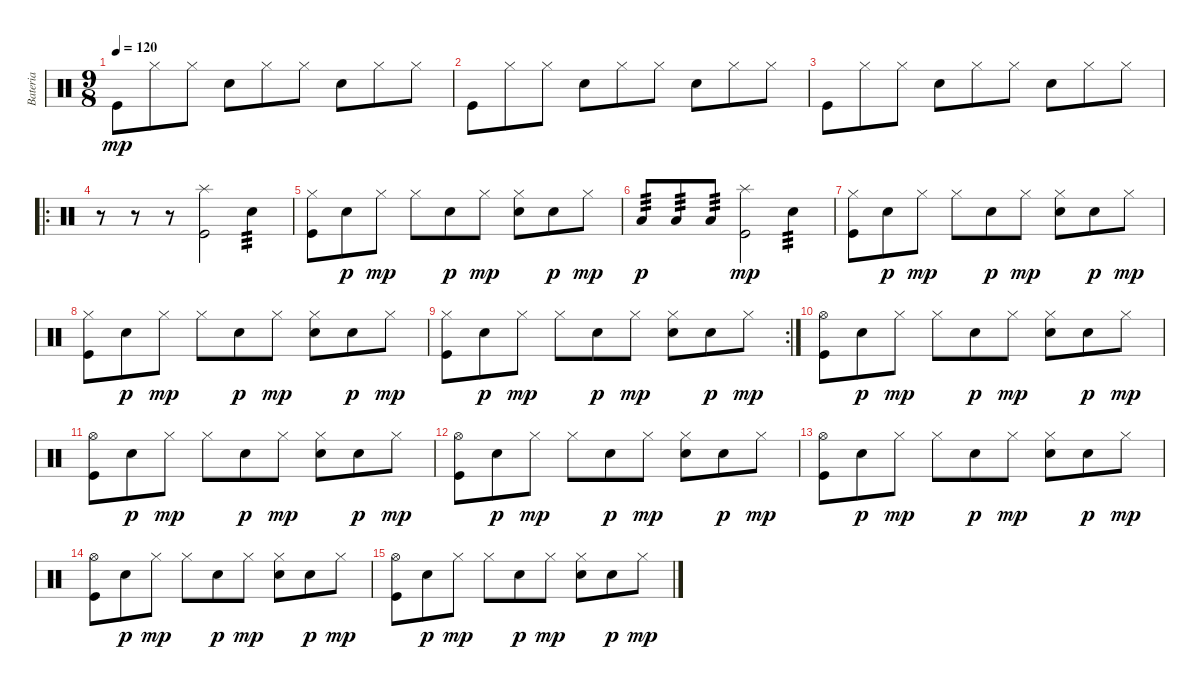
\track ("Bateria" "Bateria") {instrument percussion}
\staff {score}
\articulation defaults
\ts (9 8)
\tempo 120
\clef neutral
\ks c "Kick (hit)".8{dy mp} "Hi-Hat (closed)".8 "Hi-Hat (closed)".8 "Snare (hit) 2".8 "Hi-Hat (closed)".8 "Hi-Hat (closed)".8 "Snare (hit) 2".8 "Hi-Hat (closed)".8 "Hi-Hat (closed)".8
|
"Kick (hit)".8 "Hi-Hat (closed)".8 "Hi-Hat (closed)".8 "Snare (hit) 2".8 "Hi-Hat (closed)".8 "Hi-Hat (closed)".8 "Snare (hit) 2".8 "Hi-Hat (closed)".8 "Hi-Hat (closed)".8 |
"Kick (hit)".8 "Hi-Hat (closed)".8 "Hi-Hat (closed)".8 "Snare (hit) 2".8 "Hi-Hat (closed)".8 "Hi-Hat (closed)".8 "Snare (hit) 2".8 "Hi-Hat (closed)".8 "Hi-Hat (closed)".8 |
\ro
r.8 r.8 r.8 ("Splash (hit)" "Kick (hit)").2 "Snare (hit) 2".4{tp 3} |
("Hi-Hat (closed)" "Kick (hit)").8 "Snare (hit) 2".8{dy p} "Hi-Hat (closed)".8{dy mp} "Hi-Hat (closed)".8 "Snare (hit) 2".8{dy p} "Hi-Hat (closed)".8{dy mp} ("Hi-Hat (closed)" "Snare (hit) 2").8 "Snare (hit) 2".8{dy p} "Hi-Hat (closed)".8{dy mp} |
"Low Tom (hit)".8{tp 3 dy p} "Low Tom (hit)".8{tp 3} "Low Tom (hit)".8{tp 3} ("Splash (hit)" "Kick (hit)").2{dy mp} "Snare (hit) 2".4{tp 3} |
("Hi-Hat (closed)" "Kick (hit)").8 "Snare (hit) 2".8{dy p} "Hi-Hat (closed)".8{dy mp} "Hi-Hat (closed)".8 "Snare (hit) 2".8{dy p} "Hi-Hat (closed)".8{dy mp} ("Hi-Hat (closed)" "Snare (hit) 2").8 "Snare (hit) 2".8{dy p} "Hi-Hat (closed)".8{dy mp} |
("Hi-Hat (closed)" "Kick (hit)").8 "Snare (hit) 2".8{dy p} "Hi-Hat (closed)".8{dy mp} "Hi-Hat (closed)".8 "Snare (hit) 2".8{dy p} "Hi-Hat (closed)".8{dy mp} ("Hi-Hat (closed)" "Snare (hit) 2").8 "Snare (hit) 2".8{dy p} "Hi-Hat (closed)".8{dy mp} |
\rc 2
("Hi-Hat (closed)" "Kick (hit)").8 "Snare (hit) 2".8{dy p} "Hi-Hat (closed)".8{dy mp} "Hi-Hat (closed)".8 "Snare (hit) 2".8{dy p} "Hi-Hat (closed)".8{dy mp} ("Hi-Hat (closed)" "Snare (hit) 2").8 "Snare (hit) 2".8{dy p} "Hi-Hat (closed)".8{dy mp} |
("Hi-Hat (open)" "Kick (hit)").8 "Snare (hit) 2".8{dy p} "Hi-Hat (closed)".8{dy mp} "Hi-Hat (closed)".8 "Snare (hit) 2".8{dy p} "Hi-Hat (closed)".8{dy mp} ("Hi-Hat (closed)" "Snare (hit) 2").8 "Snare (hit) 2".8{dy p} "Hi-Hat (closed)".8{dy mp} |
("Hi-Hat (open)" "Kick (hit)").8 "Snare (hit) 2".8{dy p} "Hi-Hat (closed)".8{dy mp} "Hi-Hat (closed)".8 "Snare (hit) 2".8{dy p} "Hi-Hat (closed)".8{dy mp} ("Hi-Hat (closed)" "Snare (hit) 2").8 "Snare (hit) 2".8{dy p} "Hi-Hat (closed)".8{dy mp} |
("Hi-Hat (open)" "Kick (hit)").8 "Snare (hit) 2".8{dy p} "Hi-Hat (closed)".8{dy mp} "Hi-Hat (closed)".8 "Snare (hit) 2".8{dy p} "Hi-Hat (closed)".8{dy mp} ("Hi-Hat (closed)" "Snare (hit) 2").8 "Snare (hit) 2".8{dy p} "Hi-Hat (closed)".8{dy mp} |
("Hi-Hat (open)" "Kick (hit)").8 "Snare (hit) 2".8{dy p} "Hi-Hat (closed)".8{dy mp} "Hi-Hat (closed)".8 "Snare (hit) 2".8{dy p} "Hi-Hat (closed)".8{dy mp} ("Hi-Hat (closed)" "Snare (hit) 2").8 "Snare (hit) 2".8{dy p} "Hi-Hat (closed)".8{dy mp} |
("Hi-Hat (open)" "Kick (hit)").8 "Snare (hit) 2".8{dy p} "Hi-Hat (closed)".8{dy mp} "Hi-Hat (closed)".8 "Snare (hit) 2".8{dy p} "Hi-Hat (closed)".8{dy mp} ("Hi-Hat (closed)" "Snare (hit) 2").8 "Snare (hit) 2".8{dy p} "Hi-Hat (closed)".8{dy mp} |
("Hi-Hat (open)" "Kick (hit)").8 "Snare (hit) 2".8{dy p} "Hi-Hat (closed)".8{dy mp} "Hi-Hat (closed)".8 "Snare (hit) 2".8{dy p} "Hi-Hat (closed)".8{dy mp} ("Hi-Hat (closed)" "Snare (hit) 2").8 "Snare (hit) 2".8{dy p} "Hi-Hat (closed)".8{dy mp}
